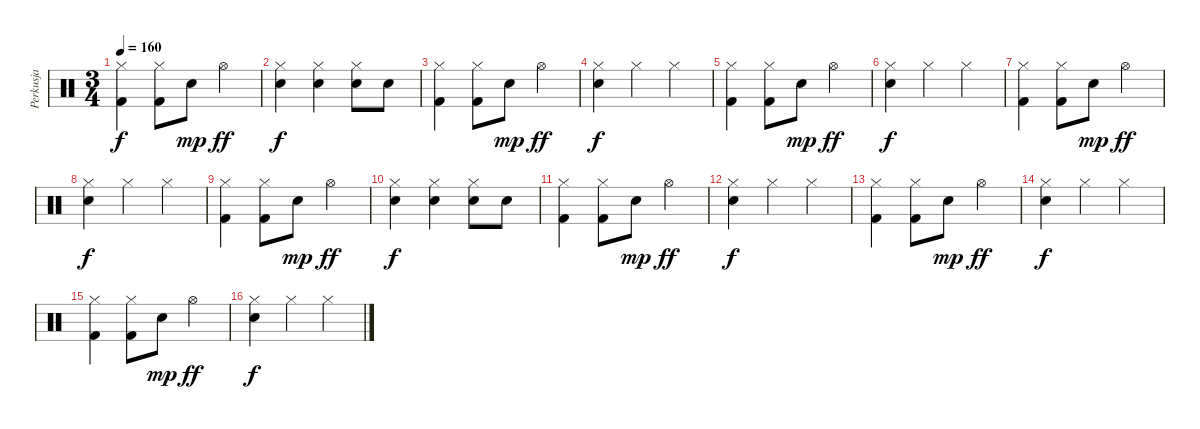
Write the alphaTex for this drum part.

\track ("Perkusja" "Perkusja") {instrument percussion}
\staff {score}
\articulation defaults
\ts (3 4)
\tempo 160
\clef neutral
\ks c
("Hi-Hat (closed)" "Kick (hit) 2").4{dy f} ("Hi-Hat (closed)" "Kick (hit) 2").8 "Snare (hit) 2".8{dy mp} "Hi-Hat (open)".4{dy ff} |
("Hi-Hat (closed)" "Snare (hit) 2").4{dy f} ("Hi-Hat (closed)" "Snare (hit) 2").4 ("Hi-Hat (closed)" "Snare (hit) 2").8 "Snare (hit) 2".8 |
("Hi-Hat (closed)" "Kick (hit) 2").4 ("Hi-Hat (closed)" "Kick (hit) 2").8 "Snare (hit) 2".8{dy mp} "Hi-Hat (open)".4{dy ff} |
("Hi-Hat (closed)" "Snare (hit) 2").4{dy f} "Hi-Hat (closed)".4 "Hi-Hat (closed)".4 |
("Hi-Hat (closed)" "Kick (hit) 2").4 ("Hi-Hat (closed)" "Kick (hit) 2").8 "Snare (hit) 2".8{dy mp} "Hi-Hat (open)".4{dy ff} |
("Hi-Hat (closed)" "Snare (hit) 2").4{dy f} "Hi-Hat (closed)".4 "Hi-Hat (closed)".4 |
("Hi-Hat (closed)" "Kick (hit) 2").4 ("Hi-Hat (closed)" "Kick (hit) 2").8 "Snare (hit) 2".8{dy mp} "Hi-Hat (open)".4{dy ff} |
("Hi-Hat (closed)" "Snare (hit) 2").4{dy f} "Hi-Hat (closed)".4 "Hi-Hat (closed)".4 |
("Hi-Hat (closed)" "Kick (hit) 2").4 ("Hi-Hat (closed)" "Kick (hit) 2").8 "Snare (hit) 2".8{dy mp} "Hi-Hat (open)".4{dy ff} |
("Hi-Hat (closed)" "Snare (hit) 2").4{dy f} ("Hi-Hat (closed)" "Snare (hit) 2").4 ("Hi-Hat (closed)" "Snare (hit) 2").8 "Snare (hit) 2".8 |
("Hi-Hat (closed)" "Kick (hit) 2").4 ("Hi-Hat (closed)" "Kick (hit) 2").8 "Snare (hit) 2".8{dy mp} "Hi-Hat (open)".4{dy ff} |
("Hi-Hat (closed)" "Snare (hit) 2").4{dy f} "Hi-Hat (closed)".4 "Hi-Hat (closed)".4 |
("Hi-Hat (closed)" "Kick (hit) 2").4 ("Hi-Hat (closed)" "Kick (hit) 2").8 "Snare (hit) 2".8{dy mp} "Hi-Hat (open)".4{dy ff} |
("Hi-Hat (closed)" "Snare (hit) 2").4{dy f} "Hi-Hat (closed)".4 "Hi-Hat (closed)".4 |
("Hi-Hat (closed)" "Kick (hit) 2").4 ("Hi-Hat (closed)" "Kick (hit) 2").8 "Snare (hit) 2".8{dy mp} "Hi-Hat (open)".4{dy ff} |
("Hi-Hat (closed)" "Snare (hit) 2").4{dy f} "Hi-Hat (closed)".4 "Hi-Hat (closed)".4
